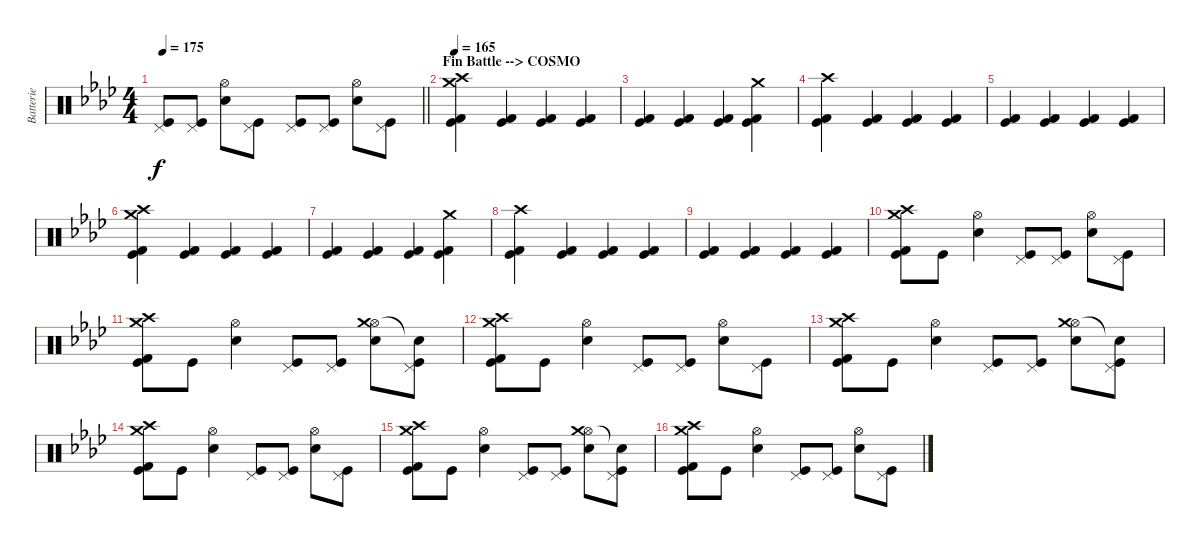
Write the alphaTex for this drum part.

\track ("Batterie" "Batterie") {instrument percussion}
\staff {score}
\articulation defaults
\ts (4 4)
\tempo 175
\clef neutral
\barLineRight lightlight
\ks ab
("Kick (hit)" "Pedal Hi-Hat (hit)").8{dy f} ("Kick (hit)" "Pedal Hi-Hat (hit)").8 ("Snare (hit) 2" "Hi-Hat (open)").8 ("Kick (hit)" "Pedal Hi-Hat (hit)").8 ("Kick (hit)" "Pedal Hi-Hat (hit)").8 ("Kick (hit)" "Pedal Hi-Hat (hit)").8 ("Snare (hit) 2" "Hi-Hat (open)").8 ("Kick (hit)" "Pedal Hi-Hat (hit)").8 |
\section ("" "Fin Battle --> COSMO")
\tempo 165
("Kick (hit)" "Kick (hit) 2" "Crash high (hit)" "Crash medium (hit)").4 ("Kick (hit)" "Kick (hit) 2").4 ("Kick (hit)" "Kick (hit) 2").4 ("Kick (hit)" "Kick (hit) 2").4 |
("Kick (hit)" "Kick (hit) 2").4 ("Kick (hit)" "Kick (hit) 2").4 ("Kick (hit)" "Kick (hit) 2").4 ("Kick (hit)" "Kick (hit) 2" "Crash medium (hit)").4 |
("Kick (hit)" "Kick (hit) 2" "Crash high (hit)").4 ("Kick (hit)" "Kick (hit) 2").4 ("Kick (hit)" "Kick (hit) 2").4 ("Kick (hit)" "Kick (hit) 2").4 |
("Kick (hit)" "Kick (hit) 2").4 ("Kick (hit)" "Kick (hit) 2").4 ("Kick (hit)" "Kick (hit) 2").4 ("Kick (hit)" "Kick (hit) 2").4 |
("Kick (hit)" "Kick (hit) 2" "Crash high (hit)" "Crash medium (hit)").4 ("Kick (hit)" "Kick (hit) 2").4 ("Kick (hit)" "Kick (hit) 2").4 ("Kick (hit)" "Kick (hit) 2").4 |
("Kick (hit)" "Kick (hit) 2").4 ("Kick (hit)" "Kick (hit) 2").4 ("Kick (hit)" "Kick (hit) 2").4 ("Kick (hit)" "Kick (hit) 2" "Crash medium (hit)").4 |
("Kick (hit)" "Kick (hit) 2" "Crash high (hit)").4 ("Kick (hit)" "Kick (hit) 2").4 ("Kick (hit)" "Kick (hit) 2").4 ("Kick (hit)" "Kick (hit) 2").4 |
("Kick (hit)" "Kick (hit) 2").4 ("Kick (hit)" "Kick (hit) 2").4 ("Kick (hit)" "Kick (hit) 2").4 ("Kick (hit)" "Kick (hit) 2").4 |
("Kick (hit)" "Kick (hit) 2" "Crash high (hit)" "Crash medium (hit)").8 "Kick (hit)".8 ("Snare (hit) 2" "Hi-Hat (open)").4 ("Kick (hit)" "Pedal Hi-Hat (hit)").8 ("Kick (hit)" "Pedal Hi-Hat (hit)").8 ("Snare (hit) 2" "Hi-Hat (open)").8 ("Kick (hit)" "Pedal Hi-Hat (hit)").8 |
("Kick (hit)" "Kick (hit) 2" "Crash high (hit)" "Crash medium (hit)").8 "Kick (hit)".8 ("Snare (hit) 2" "Hi-Hat (open)").4 ("Kick (hit)" "Pedal Hi-Hat (hit)").8 ("Kick (hit)" "Pedal Hi-Hat (hit)").8 ("Snare (hit) 2" "Hi-Hat (open)" "Crash medium (hit)").8 ("Kick (hit)" "Pedal Hi-Hat (hit)" "Snare (hit)"{t}).8 |
("Kick (hit)" "Kick (hit) 2" "Crash high (hit)" "Crash medium (hit)").8 "Kick (hit)".8 ("Snare (hit) 2" "Hi-Hat (open)").4 ("Kick (hit)" "Pedal Hi-Hat (hit)").8 ("Kick (hit)" "Pedal Hi-Hat (hit)").8 ("Snare (hit) 2" "Hi-Hat (open)").8 ("Kick (hit)" "Pedal Hi-Hat (hit)").8 |
("Kick (hit)" "Kick (hit) 2" "Crash high (hit)" "Crash medium (hit)").8 "Kick (hit)".8 ("Snare (hit) 2" "Hi-Hat (open)").4 ("Kick (hit)" "Pedal Hi-Hat (hit)").8 ("Kick (hit)" "Pedal Hi-Hat (hit)").8 ("Snare (hit) 2" "Hi-Hat (open)" "Crash medium (hit)").8 ("Kick (hit)" "Pedal Hi-Hat (hit)" "Snare (hit)"{t}).8 |
("Kick (hit)" "Kick (hit) 2" "Crash high (hit)" "Crash medium (hit)").8 "Kick (hit)".8 ("Snare (hit) 2" "Hi-Hat (open)").4 ("Kick (hit)" "Pedal Hi-Hat (hit)").8 ("Kick (hit)" "Pedal Hi-Hat (hit)").8 ("Snare (hit) 2" "Hi-Hat (open)").8 ("Kick (hit)" "Pedal Hi-Hat (hit)").8 |
("Kick (hit)" "Kick (hit) 2" "Crash high (hit)" "Crash medium (hit)").8 "Kick (hit)".8 ("Snare (hit) 2" "Hi-Hat (open)").4 ("Kick (hit)" "Pedal Hi-Hat (hit)").8 ("Kick (hit)" "Pedal Hi-Hat (hit)").8 ("Snare (hit) 2" "Hi-Hat (open)" "Crash medium (hit)").8 ("Kick (hit)" "Pedal Hi-Hat (hit)" "Snare (hit)"{t}).8 |
("Kick (hit)" "Kick (hit) 2" "Crash high (hit)" "Crash medium (hit)").8 "Kick (hit)".8 ("Snare (hit) 2" "Hi-Hat (open)").4 ("Kick (hit)" "Pedal Hi-Hat (hit)").8 ("Kick (hit)" "Pedal Hi-Hat (hit)").8 ("Snare (hit) 2" "Hi-Hat (open)").8 ("Kick (hit)" "Pedal Hi-Hat (hit)").8
